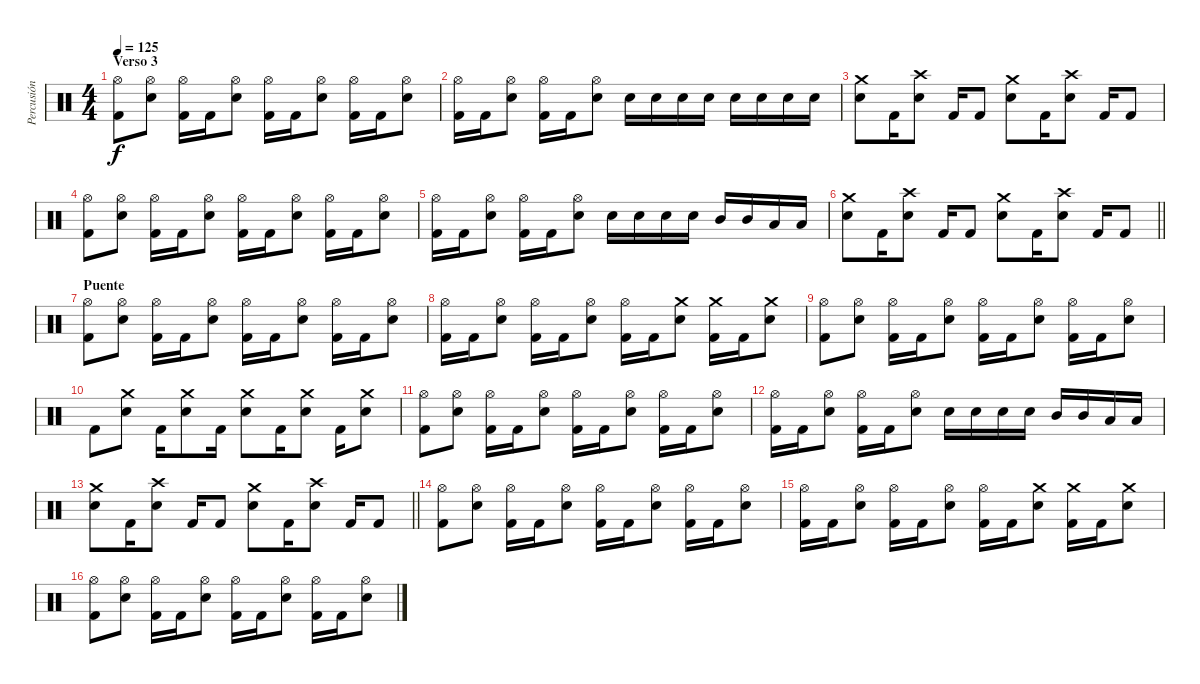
\track ("Percusión" "Percusión") {instrument percussion}
\staff {score}
\articulation defaults
\ts (4 4)
\section ("" "Verso 3")
\tempo 125
\clef neutral
\ks c
("Hi-Hat (open)" "Kick (hit) 2").8{dy f} ("Hi-Hat (open)" "Snare (hit) 2").8 ("Hi-Hat (open)" "Kick (hit) 2").16 "Kick (hit) 2".16 ("Hi-Hat (open)" "Snare (hit) 2").8 ("Hi-Hat (open)" "Kick (hit) 2").16 "Kick (hit) 2".16 ("Hi-Hat (open)" "Snare (hit) 2").8 ("Hi-Hat (open)" "Kick (hit) 2").16 "Kick (hit) 2".16 ("Hi-Hat (open)" "Snare (hit) 2").8 |
("Hi-Hat (open)" "Kick (hit) 2").16 "Kick (hit) 2".16 ("Hi-Hat (open)" "Snare (hit) 2").8 ("Hi-Hat (open)" "Kick (hit) 2").16 "Kick (hit) 2".16 ("Hi-Hat (open)" "Snare (hit) 2").8 "Snare (hit) 2".16 "Snare (hit) 2".16 "Snare (hit) 2".16 "Snare (hit) 2".16 "Snare (hit) 2".16 "Snare (hit) 2".16 "Snare (hit) 2".16 "Snare (hit) 2".16 |
("Crash medium (hit)" "Snare (hit) 2").8 "Kick (hit) 2".16 ("Crash high (hit)" "Snare (hit) 2").8 "Kick (hit) 2".16 "Kick (hit) 2".8 ("Crash medium (hit)" "Snare (hit) 2").8 "Kick (hit) 2".16 ("Crash high (hit)" "Snare (hit) 2").8 "Kick (hit) 2".16 "Kick (hit) 2".8 |
("Hi-Hat (open)" "Kick (hit) 2").8 ("Hi-Hat (open)" "Snare (hit) 2").8 ("Hi-Hat (open)" "Kick (hit) 2").16 "Kick (hit) 2".16 ("Hi-Hat (open)" "Snare (hit) 2").8 ("Hi-Hat (open)" "Kick (hit) 2").16 "Kick (hit) 2".16 ("Hi-Hat (open)" "Snare (hit) 2").8 ("Hi-Hat (open)" "Kick (hit) 2").16 "Kick (hit) 2".16 ("Hi-Hat (open)" "Snare (hit) 2").8 |
("Hi-Hat (open)" "Kick (hit) 2").16 "Kick (hit) 2".16 ("Hi-Hat (open)" "Snare (hit) 2").8 ("Hi-Hat (open)" "Kick (hit) 2").16 "Kick (hit) 2".16 ("Hi-Hat (open)" "Snare (hit) 2").8 "Snare (hit) 2".16 "Snare (hit) 2".16 "Snare (hit) 2".16 "Snare (hit) 2".16 "Mid Tom (hit)".16 "Mid Tom (hit)".16 "Low Tom (hit)".16 "Low Tom (hit)".16 |
\barLineRight lightlight
("Crash medium (hit)" "Snare (hit) 2").8 "Kick (hit) 2".16 ("Crash high (hit)" "Snare (hit) 2").8 "Kick (hit) 2".16 "Kick (hit) 2".8 ("Crash medium (hit)" "Snare (hit) 2").8 "Kick (hit) 2".16 ("Crash high (hit)" "Snare (hit) 2").8 "Kick (hit) 2".16 "Kick (hit) 2".8 |
\section ("" "Puente")
("Hi-Hat (open)" "Kick (hit) 2").8 ("Hi-Hat (open)" "Snare (hit) 2").8 ("Hi-Hat (open)" "Kick (hit) 2").16 "Kick (hit) 2".16 ("Hi-Hat (open)" "Snare (hit) 2").8 ("Hi-Hat (open)" "Kick (hit) 2").16 "Kick (hit) 2".16 ("Hi-Hat (open)" "Snare (hit) 2").8 ("Hi-Hat (open)" "Kick (hit) 2").16 "Kick (hit) 2".16 ("Hi-Hat (open)" "Snare (hit) 2").8 |
("Hi-Hat (open)" "Kick (hit) 2").16 "Kick (hit) 2".16 ("Hi-Hat (open)" "Snare (hit) 2").8 ("Hi-Hat (open)" "Kick (hit) 2").16 "Kick (hit) 2".16 ("Hi-Hat (open)" "Snare (hit) 2").8 ("Hi-Hat (open)" "Kick (hit) 2").16 "Kick (hit) 2".16 ("Crash medium (hit)" "Snare (hit) 2").8 ("Crash medium (hit)" "Kick (hit) 2").16 "Kick (hit) 2".16 ("Crash medium (hit)" "Snare (hit) 2").8 |
("Hi-Hat (open)" "Kick (hit) 2").8 ("Hi-Hat (open)" "Snare (hit) 2").8 ("Hi-Hat (open)" "Kick (hit) 2").16 "Kick (hit) 2".16 ("Hi-Hat (open)" "Snare (hit) 2").8 ("Hi-Hat (open)" "Kick (hit) 2").16 "Kick (hit) 2".16 ("Hi-Hat (open)" "Snare (hit) 2").8 ("Hi-Hat (open)" "Kick (hit) 2").16 "Kick (hit) 2".16 ("Hi-Hat (open)" "Snare (hit) 2").8 |
"Kick (hit) 2".8 ("Crash medium (hit)" "Snare (hit) 2").8 "Kick (hit) 2".16 ("Crash medium (hit)" "Snare (hit) 2").8 "Kick (hit) 2".16 ("Crash medium (hit)" "Snare (hit) 2").8 "Kick (hit) 2".16 ("Crash medium (hit)" "Snare (hit) 2").8 "Kick (hit) 2".16 ("Crash medium (hit)" "Snare (hit) 2").8 |
("Hi-Hat (open)" "Kick (hit) 2").8 ("Hi-Hat (open)" "Snare (hit) 2").8 ("Hi-Hat (open)" "Kick (hit) 2").16 "Kick (hit) 2".16 ("Hi-Hat (open)" "Snare (hit) 2").8 ("Hi-Hat (open)" "Kick (hit) 2").16 "Kick (hit) 2".16 ("Hi-Hat (open)" "Snare (hit) 2").8 ("Hi-Hat (open)" "Kick (hit) 2").16 "Kick (hit) 2".16 ("Hi-Hat (open)" "Snare (hit) 2").8 |
("Hi-Hat (open)" "Kick (hit) 2").16 "Kick (hit) 2".16 ("Hi-Hat (open)" "Snare (hit) 2").8 ("Hi-Hat (open)" "Kick (hit) 2").16 "Kick (hit) 2".16 ("Hi-Hat (open)" "Snare (hit) 2").8 "Snare (hit) 2".16 "Snare (hit) 2".16 "Snare (hit) 2".16 "Snare (hit) 2".16 "Mid Tom (hit)".16 "Mid Tom (hit)".16 "Low Tom (hit)".16 "Low Tom (hit)".16 |
\barLineRight lightlight
("Crash medium (hit)" "Snare (hit) 2").8 "Kick (hit) 2".16 ("Crash high (hit)" "Snare (hit) 2").8 "Kick (hit) 2".16 "Kick (hit) 2".8 ("Crash medium (hit)" "Snare (hit) 2").8 "Kick (hit) 2".16 ("Crash high (hit)" "Snare (hit) 2").8 "Kick (hit) 2".16 "Kick (hit) 2".8 |
("Hi-Hat (open)" "Kick (hit) 2").8 ("Hi-Hat (open)" "Snare (hit) 2").8 ("Hi-Hat (open)" "Kick (hit) 2").16 "Kick (hit) 2".16 ("Hi-Hat (open)" "Snare (hit) 2").8 ("Hi-Hat (open)" "Kick (hit) 2").16 "Kick (hit) 2".16 ("Hi-Hat (open)" "Snare (hit) 2").8 ("Hi-Hat (open)" "Kick (hit) 2").16 "Kick (hit) 2".16 ("Hi-Hat (open)" "Snare (hit) 2").8 |
("Hi-Hat (open)" "Kick (hit) 2").16 "Kick (hit) 2".16 ("Hi-Hat (open)" "Snare (hit) 2").8 ("Hi-Hat (open)" "Kick (hit) 2").16 "Kick (hit) 2".16 ("Hi-Hat (open)" "Snare (hit) 2").8 ("Hi-Hat (open)" "Kick (hit) 2").16 "Kick (hit) 2".16 ("Crash medium (hit)" "Snare (hit) 2").8 ("Crash medium (hit)" "Kick (hit) 2").16 "Kick (hit) 2".16 ("Crash medium (hit)" "Snare (hit) 2").8 |
("Hi-Hat (open)" "Kick (hit) 2").8 ("Hi-Hat (open)" "Snare (hit) 2").8 ("Hi-Hat (open)" "Kick (hit) 2").16 "Kick (hit) 2".16 ("Hi-Hat (open)" "Snare (hit) 2").8 ("Hi-Hat (open)" "Kick (hit) 2").16 "Kick (hit) 2".16 ("Hi-Hat (open)" "Snare (hit) 2").8 ("Hi-Hat (open)" "Kick (hit) 2").16 "Kick (hit) 2".16 ("Hi-Hat (open)" "Snare (hit) 2").8
